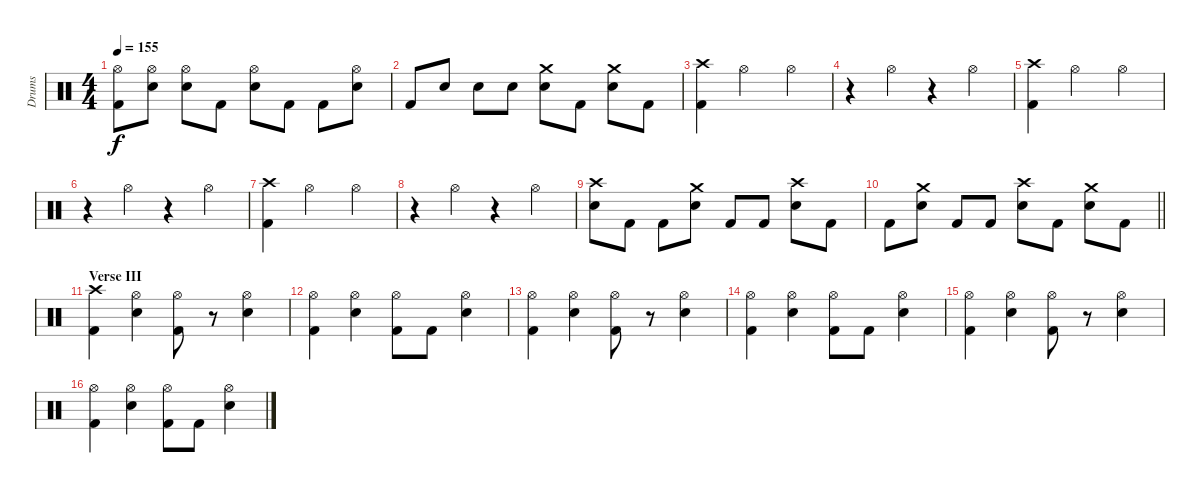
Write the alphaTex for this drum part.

\track ("Drums" "Drums") {instrument percussion}
\staff {score}
\articulation defaults
\ts (4 4)
\tempo 155
\clef neutral
\ks c
("Hi-Hat (open)" "Kick (hit) 2").8{dy f} ("Hi-Hat (open)" "Electric Snare (hit)").8 ("Hi-Hat (open)" "Electric Snare (hit)").8 "Kick (hit) 2".8 ("Hi-Hat (open)" "Electric Snare (hit)").8 "Kick (hit) 2".8 "Kick (hit) 2".8 ("Hi-Hat (open)" "Electric Snare (hit)").8 |
"Kick (hit) 2".8 "Electric Snare (hit)".8 "Electric Snare (hit)".8 "Electric Snare (hit)".8 ("Crash medium (hit)" "Electric Snare (hit)").8 "Kick (hit) 2".8 ("Crash medium (hit)" "Electric Snare (hit)").8 "Kick (hit) 2".8 |
("Crash high (hit)" "Kick (hit) 2").4 "Hi-Hat (open)".2 "Hi-Hat (open)".4 |
r.4 "Hi-Hat (open)".4 r.4 "Hi-Hat (open)".4 |
("Crash high (hit)" "Kick (hit) 2").4 "Hi-Hat (open)".2 "Hi-Hat (open)".4 |
r.4 "Hi-Hat (open)".4 r.4 "Hi-Hat (open)".4 |
("Crash high (hit)" "Kick (hit) 2").4 "Hi-Hat (open)".2 "Hi-Hat (open)".4 |
r.4 "Hi-Hat (open)".4 r.4 "Hi-Hat (open)".4 |
("Crash high (hit)" "Electric Snare (hit)").8 "Kick (hit) 2".8 "Kick (hit) 2".8 ("Crash medium (hit)" "Electric Snare (hit)").8 "Kick (hit) 2".8 "Kick (hit) 2".8 ("Crash high (hit)" "Electric Snare (hit)").8 "Kick (hit) 2".8 |
\barLineRight lightlight "Kick (hit) 2".8
("Crash medium (hit)" "Electric Snare (hit)").8 "Kick (hit) 2".8 "Kick (hit) 2".8 ("Crash high (hit)" "Electric Snare (hit)").8 "Kick (hit) 2".8 ("Crash medium (hit)" "Electric Snare (hit)").8 "Kick (hit) 2".8 |
\section ("" "Verse III")
("Crash high (hit)" "Kick (hit) 2").4 ("Hi-Hat (open)" "Electric Snare (hit)").4 ("Hi-Hat (open)" "Kick (hit) 2").8 r.8 ("Hi-Hat (open)" "Electric Snare (hit)").4 |
("Hi-Hat (open)" "Kick (hit) 2").4 ("Hi-Hat (open)" "Electric Snare (hit)").4 ("Hi-Hat (open)" "Kick (hit) 2").8 "Kick (hit) 2".8 ("Hi-Hat (open)" "Electric Snare (hit)").4 |
("Hi-Hat (open)" "Kick (hit) 2").4 ("Hi-Hat (open)" "Electric Snare (hit)").4 ("Hi-Hat (open)" "Kick (hit) 2").8 r.8 ("Hi-Hat (open)" "Electric Snare (hit)").4 |
("Hi-Hat (open)" "Kick (hit) 2").4 ("Hi-Hat (open)" "Electric Snare (hit)").4 ("Hi-Hat (open)" "Kick (hit) 2").8 "Kick (hit) 2".8 ("Hi-Hat (open)" "Electric Snare (hit)").4 |
("Hi-Hat (open)" "Kick (hit) 2").4 ("Hi-Hat (open)" "Electric Snare (hit)").4 ("Hi-Hat (open)" "Kick (hit) 2").8 r.8 ("Hi-Hat (open)" "Electric Snare (hit)").4 |
("Hi-Hat (open)" "Kick (hit) 2").4 ("Hi-Hat (open)" "Electric Snare (hit)").4 ("Hi-Hat (open)" "Kick (hit) 2").8 "Kick (hit) 2".8 ("Hi-Hat (open)" "Electric Snare (hit)").4
